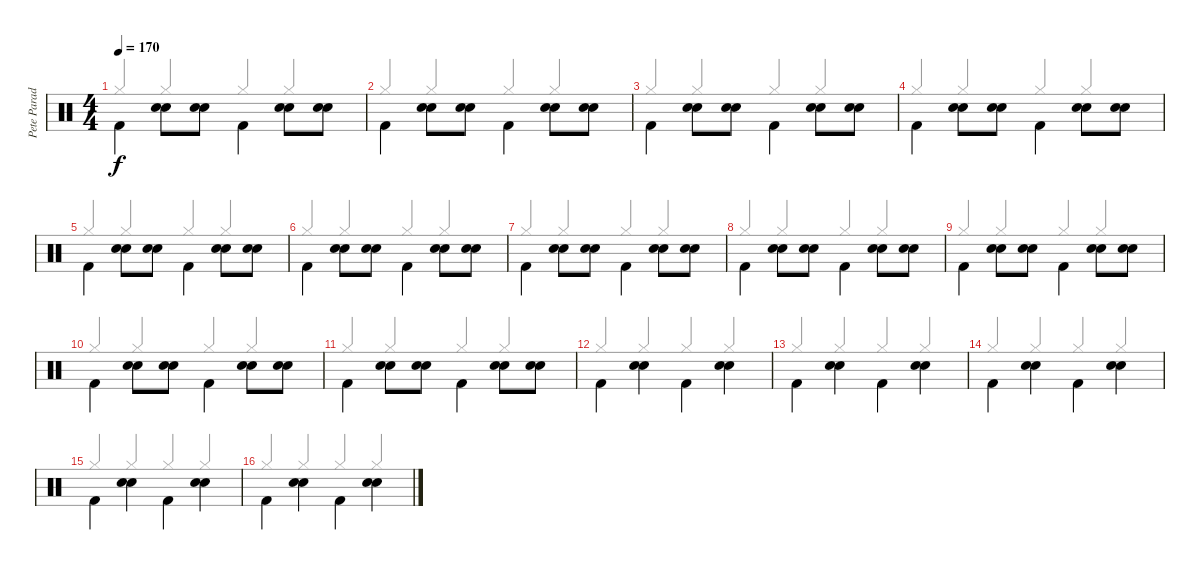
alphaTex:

\track ("Pete Parada" "Pete Parad") {instrument percussion}
\staff {score}
\articulation defaults
\voice
\ts (4 4)
\tempo 170
\clef neutral
\ks c "Kick (hit) 2".4{dy f beam Down}
("Electric Snare (hit)" "Electric Snare (hit)").8{beam Down} ("Electric Snare (hit)" "Electric Snare (hit)").8{beam Down} "Kick (hit) 2".4{beam Down} ("Electric Snare (hit)" "Electric Snare (hit)").8{beam Down} ("Electric Snare (hit)" "Electric Snare (hit)").8{beam Down} |
"Kick (hit) 2".4{beam Down} ("Electric Snare (hit)" "Electric Snare (hit)").8{beam Down} ("Electric Snare (hit)" "Electric Snare (hit)").8{beam Down} "Kick (hit) 2".4{beam Down} ("Electric Snare (hit)" "Electric Snare (hit)").8{beam Down} ("Electric Snare (hit)" "Electric Snare (hit)").8{beam Down} |
"Kick (hit) 2".4{beam Down} ("Electric Snare (hit)" "Electric Snare (hit)").8{beam Down} ("Electric Snare (hit)" "Electric Snare (hit)").8{beam Down} "Kick (hit) 2".4{beam Down} ("Electric Snare (hit)" "Electric Snare (hit)").8{beam Down} ("Electric Snare (hit)" "Electric Snare (hit)").8{beam Down} |
"Kick (hit) 2".4{beam Down} ("Electric Snare (hit)" "Electric Snare (hit)").8{beam Down} ("Electric Snare (hit)" "Electric Snare (hit)").8{beam Down} "Kick (hit) 2".4{beam Down} ("Electric Snare (hit)" "Electric Snare (hit)").8{beam Down} ("Electric Snare (hit)" "Electric Snare (hit)").8{beam Down} |
"Kick (hit) 2".4{beam Down} ("Electric Snare (hit)" "Electric Snare (hit)").8{beam Down} ("Electric Snare (hit)" "Electric Snare (hit)").8{beam Down} "Kick (hit) 2".4{beam Down} ("Electric Snare (hit)" "Electric Snare (hit)").8{beam Down} ("Electric Snare (hit)" "Electric Snare (hit)").8{beam Down} |
"Kick (hit) 2".4{beam Down} ("Electric Snare (hit)" "Electric Snare (hit)").8{beam Down} ("Electric Snare (hit)" "Electric Snare (hit)").8{beam Down} "Kick (hit) 2".4{beam Down} ("Electric Snare (hit)" "Electric Snare (hit)").8{beam Down} ("Electric Snare (hit)" "Electric Snare (hit)").8{beam Down} |
"Kick (hit) 2".4{beam Down} ("Electric Snare (hit)" "Electric Snare (hit)").8{beam Down} ("Electric Snare (hit)" "Electric Snare (hit)").8{beam Down} "Kick (hit) 2".4{beam Down} ("Electric Snare (hit)" "Electric Snare (hit)").8{beam Down} ("Electric Snare (hit)" "Electric Snare (hit)").8{beam Down} |
"Kick (hit) 2".4{beam Down} ("Electric Snare (hit)" "Electric Snare (hit)").8{beam Down} ("Electric Snare (hit)" "Electric Snare (hit)").8{beam Down} "Kick (hit) 2".4{beam Down} ("Electric Snare (hit)" "Electric Snare (hit)").8{beam Down} ("Electric Snare (hit)" "Electric Snare (hit)").8{beam Down} |
"Kick (hit) 2".4{beam Down} ("Electric Snare (hit)" "Electric Snare (hit)").8{beam Down} ("Electric Snare (hit)" "Electric Snare (hit)").8{beam Down} "Kick (hit) 2".4{beam Down} ("Electric Snare (hit)" "Electric Snare (hit)").8{beam Down} ("Electric Snare (hit)" "Electric Snare (hit)").8{beam Down} |
"Kick (hit) 2".4{beam Down} ("Electric Snare (hit)" "Electric Snare (hit)").8{beam Down} ("Electric Snare (hit)" "Electric Snare (hit)").8{beam Down} "Kick (hit) 2".4{beam Down} ("Electric Snare (hit)" "Electric Snare (hit)").8{beam Down} ("Electric Snare (hit)" "Electric Snare (hit)").8{beam Down} |
"Kick (hit) 2".4{beam Down} ("Electric Snare (hit)" "Electric Snare (hit)").8{beam Down} ("Electric Snare (hit)" "Electric Snare (hit)").8{beam Down} "Kick (hit) 2".4{beam Down} ("Electric Snare (hit)" "Electric Snare (hit)").8{beam Down} ("Electric Snare (hit)" "Electric Snare (hit)").8{beam Down} |
"Kick (hit) 2".4{beam Down} ("Electric Snare (hit)" "Electric Snare (hit)").4{beam Down} "Kick (hit) 2".4{beam Down} ("Electric Snare (hit)" "Electric Snare (hit)").4{beam Down} |
"Kick (hit) 2".4{beam Down} ("Electric Snare (hit)" "Electric Snare (hit)").4{beam Down} "Kick (hit) 2".4{beam Down} ("Electric Snare (hit)" "Electric Snare (hit)").4{beam Down} |
"Kick (hit) 2".4{beam Down} ("Electric Snare (hit)" "Electric Snare (hit)").4{beam Down} "Kick (hit) 2".4{beam Down} ("Electric Snare (hit)" "Electric Snare (hit)").4{beam Down} |
"Kick (hit) 2".4{beam Down} ("Electric Snare (hit)" "Electric Snare (hit)").4{beam Down} "Kick (hit) 2".4{beam Down} ("Electric Snare (hit)" "Electric Snare (hit)").4{beam Down} |
"Kick (hit) 2".4{beam Down} ("Electric Snare (hit)" "Electric Snare (hit)").4{beam Down} "Kick (hit) 2".4{beam Down} ("Electric Snare (hit)" "Electric Snare (hit)").4{beam Down}
\voice
\clef neutral
\ottava regular
\simile none
\ks c "Hi-Hat (closed)".4{dy f beam Up} "Hi-Hat (closed)".4{beam Up} "Hi-Hat (closed)".4{beam Up} "Hi-Hat (closed)".4{beam Up}
|
"Hi-Hat (closed)".4{beam Up} "Hi-Hat (closed)".4{beam Up} "Hi-Hat (closed)".4{beam Up} "Hi-Hat (closed)".4{beam Up} |
"Hi-Hat (closed)".4{beam Up} "Hi-Hat (closed)".4{beam Up} "Hi-Hat (closed)".4{beam Up} "Hi-Hat (closed)".4{beam Up} |
"Hi-Hat (closed)".4{beam Up} "Hi-Hat (closed)".4{beam Up} "Hi-Hat (closed)".4{beam Up} "Hi-Hat (closed)".4{beam Up} |
"Hi-Hat (closed)".4{beam Up} "Hi-Hat (closed)".4{beam Up} "Hi-Hat (closed)".4{beam Up} "Hi-Hat (closed)".4{beam Up} |
"Hi-Hat (closed)".4{beam Up} "Hi-Hat (closed)".4{beam Up} "Hi-Hat (closed)".4{beam Up} "Hi-Hat (closed)".4{beam Up} |
"Hi-Hat (closed)".4{beam Up} "Hi-Hat (closed)".4{beam Up} "Hi-Hat (closed)".4{beam Up} "Hi-Hat (closed)".4{beam Up} |
"Hi-Hat (closed)".4{beam Up} "Hi-Hat (closed)".4{beam Up} "Hi-Hat (closed)".4{beam Up} "Hi-Hat (closed)".4{beam Up} |
"Hi-Hat (closed)".4{beam Up} "Hi-Hat (closed)".4{beam Up} "Hi-Hat (closed)".4{beam Up} "Hi-Hat (closed)".4{beam Up} |
"Hi-Hat (closed)".4{beam Up} "Hi-Hat (closed)".4{beam Up} "Hi-Hat (closed)".4{beam Up} "Hi-Hat (closed)".4{beam Up} |
"Hi-Hat (closed)".4{beam Up} "Hi-Hat (closed)".4{beam Up} "Hi-Hat (closed)".4{beam Up} "Hi-Hat (closed)".4{beam Up} |
"Hi-Hat (closed)".4{beam Up} "Hi-Hat (closed)".4{beam Up} "Hi-Hat (closed)".4{beam Up} "Hi-Hat (closed)".4{beam Up} |
"Hi-Hat (closed)".4{beam Up} "Hi-Hat (closed)".4{beam Up} "Hi-Hat (closed)".4{beam Up} "Hi-Hat (closed)".4{beam Up} |
"Hi-Hat (closed)".4{beam Up} "Hi-Hat (closed)".4{beam Up} "Hi-Hat (closed)".4{beam Up} "Hi-Hat (closed)".4{beam Up} |
"Hi-Hat (closed)".4{beam Up} "Hi-Hat (closed)".4{beam Up} "Hi-Hat (closed)".4{beam Up} "Hi-Hat (closed)".4{beam Up} |
"Hi-Hat (closed)".4{beam Up} "Hi-Hat (closed)".4{beam Up} "Hi-Hat (closed)".4{beam Up} "Hi-Hat (closed)".4{beam Up}
